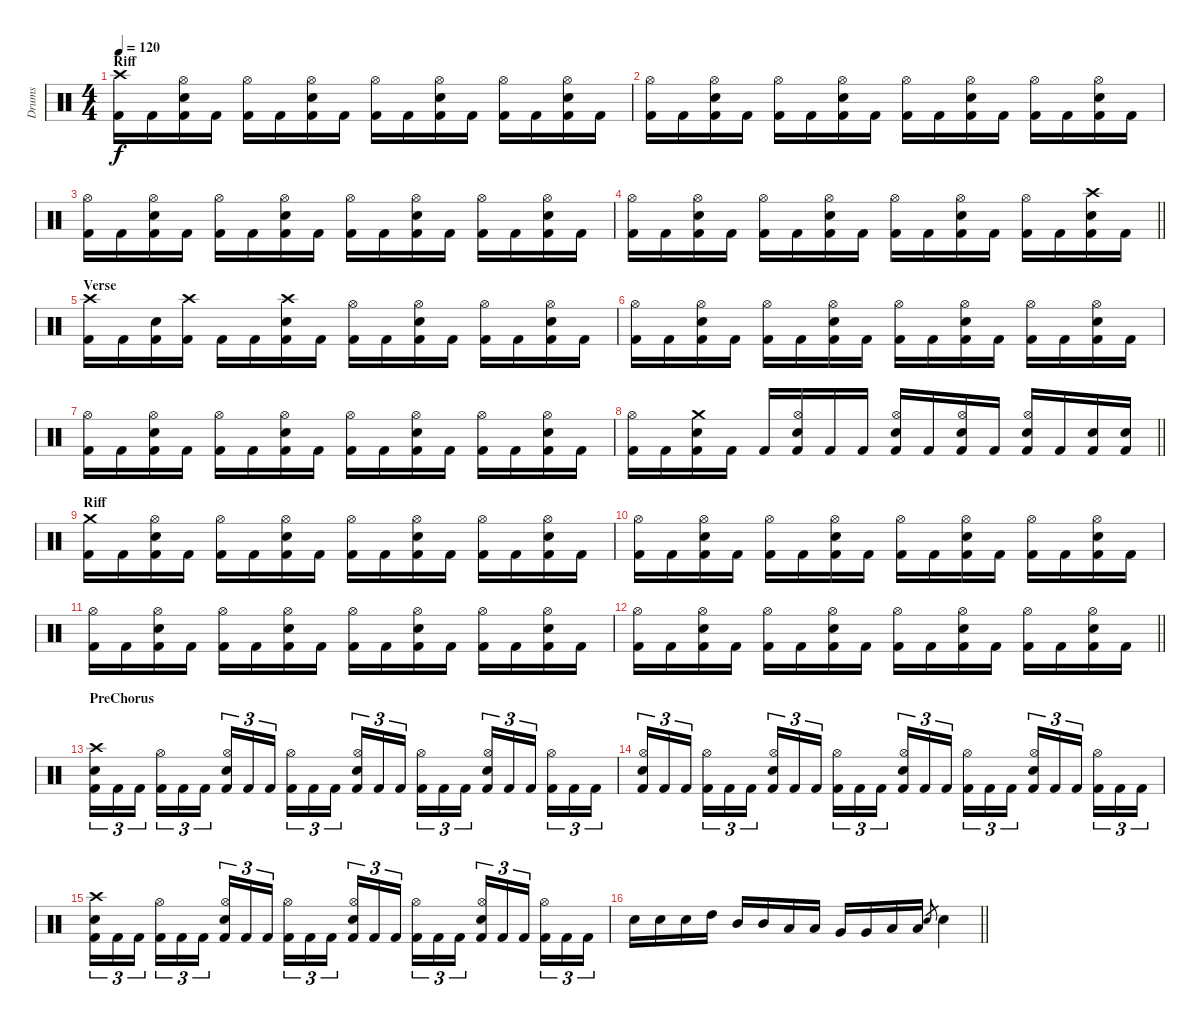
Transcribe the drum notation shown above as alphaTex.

\track ("Drums" "Drums") {instrument percussion}
\staff {score}
\articulation defaults
\ts (4 4)
\section ("" "Riff")
\tempo 120
\clef neutral
\ks c
("Crash high (hit)" "Kick (hit) 2").16{dy f} "Kick (hit) 2".16 ("Hi-Hat (open)" "Snare (hit) 2" "Kick (hit) 2").16 "Kick (hit) 2".16 ("Hi-Hat (open)" "Kick (hit) 2").16 "Kick (hit) 2".16 ("Hi-Hat (open)" "Snare (hit) 2" "Kick (hit) 2").16 "Kick (hit) 2".16 ("Hi-Hat (open)" "Kick (hit) 2").16 "Kick (hit) 2".16 ("Hi-Hat (open)" "Snare (hit) 2" "Kick (hit) 2").16 "Kick (hit) 2".16 ("Hi-Hat (open)" "Kick (hit) 2").16 "Kick (hit) 2".16 ("Hi-Hat (open)" "Snare (hit) 2" "Kick (hit) 2").16 "Kick (hit) 2".16 |
("Hi-Hat (open)" "Kick (hit) 2").16 "Kick (hit) 2".16 ("Hi-Hat (open)" "Snare (hit) 2" "Kick (hit) 2").16 "Kick (hit) 2".16 ("Hi-Hat (open)" "Kick (hit) 2").16 "Kick (hit) 2".16 ("Hi-Hat (open)" "Snare (hit) 2" "Kick (hit) 2").16 "Kick (hit) 2".16 ("Hi-Hat (open)" "Kick (hit) 2").16 "Kick (hit) 2".16 ("Hi-Hat (open)" "Snare (hit) 2" "Kick (hit) 2").16 "Kick (hit) 2".16 ("Hi-Hat (open)" "Kick (hit) 2").16 "Kick (hit) 2".16 ("Hi-Hat (open)" "Snare (hit) 2" "Kick (hit) 2").16 "Kick (hit) 2".16 |
("Hi-Hat (open)" "Kick (hit) 2").16 "Kick (hit) 2".16 ("Hi-Hat (open)" "Snare (hit) 2" "Kick (hit) 2").16 "Kick (hit) 2".16 ("Hi-Hat (open)" "Kick (hit) 2").16 "Kick (hit) 2".16 ("Hi-Hat (open)" "Snare (hit) 2" "Kick (hit) 2").16 "Kick (hit) 2".16 ("Hi-Hat (open)" "Kick (hit) 2").16 "Kick (hit) 2".16 ("Hi-Hat (open)" "Snare (hit) 2" "Kick (hit) 2").16 "Kick (hit) 2".16 ("Hi-Hat (open)" "Kick (hit) 2").16 "Kick (hit) 2".16 ("Hi-Hat (open)" "Snare (hit) 2" "Kick (hit) 2").16 "Kick (hit) 2".16 |
\barLineRight lightlight
("Hi-Hat (open)" "Kick (hit) 2").16 "Kick (hit) 2".16 ("Hi-Hat (open)" "Snare (hit) 2" "Kick (hit) 2").16 "Kick (hit) 2".16 ("Hi-Hat (open)" "Kick (hit) 2").16 "Kick (hit) 2".16 ("Hi-Hat (open)" "Snare (hit) 2" "Kick (hit) 2").16 "Kick (hit) 2".16 ("Hi-Hat (open)" "Kick (hit) 2").16 "Kick (hit) 2".16 ("Hi-Hat (open)" "Snare (hit) 2" "Kick (hit) 2").16 "Kick (hit) 2".16 ("Hi-Hat (open)" "Kick (hit) 2").16 "Kick (hit) 2".16 ("Crash high (hit)" "Snare (hit) 2" "Kick (hit) 2").16 "Kick (hit) 2".16 |
\section ("" "Verse")
("Crash high (hit)" "Kick (hit) 2").16 "Kick (hit) 2".16 ("Snare (hit) 2" "Kick (hit) 2").16 ("Crash high (hit)" "Kick (hit) 2").16 "Kick (hit) 2".16 "Kick (hit) 2".16 ("Crash high (hit)" "Snare (hit) 2" "Kick (hit) 2").16 "Kick (hit) 2".16 ("Hi-Hat (open)" "Kick (hit) 2").16 "Kick (hit) 2".16 ("Hi-Hat (open)" "Snare (hit) 2" "Kick (hit) 2").16 "Kick (hit) 2".16 ("Hi-Hat (open)" "Kick (hit) 2").16 "Kick (hit) 2".16 ("Hi-Hat (open)" "Snare (hit) 2" "Kick (hit) 2").16 "Kick (hit) 2".16 |
("Hi-Hat (open)" "Kick (hit) 2").16 "Kick (hit) 2".16 ("Hi-Hat (open)" "Snare (hit) 2" "Kick (hit) 2").16 "Kick (hit) 2".16 ("Hi-Hat (open)" "Kick (hit) 2").16 "Kick (hit) 2".16 ("Hi-Hat (open)" "Snare (hit) 2" "Kick (hit) 2").16 "Kick (hit) 2".16 ("Hi-Hat (open)" "Kick (hit) 2").16 "Kick (hit) 2".16 ("Hi-Hat (open)" "Snare (hit) 2" "Kick (hit) 2").16 "Kick (hit) 2".16 ("Hi-Hat (open)" "Kick (hit) 2").16 "Kick (hit) 2".16 ("Hi-Hat (open)" "Snare (hit) 2" "Kick (hit) 2").16 "Kick (hit) 2".16 |
("Hi-Hat (open)" "Kick (hit) 2").16 "Kick (hit) 2".16 ("Hi-Hat (open)" "Snare (hit) 2" "Kick (hit) 2").16 "Kick (hit) 2".16 ("Hi-Hat (open)" "Kick (hit) 2").16 "Kick (hit) 2".16 ("Hi-Hat (open)" "Snare (hit) 2" "Kick (hit) 2").16 "Kick (hit) 2".16 ("Hi-Hat (open)" "Kick (hit) 2").16 "Kick (hit) 2".16 ("Hi-Hat (open)" "Snare (hit) 2" "Kick (hit) 2").16 "Kick (hit) 2".16 ("Hi-Hat (open)" "Kick (hit) 2").16 "Kick (hit) 2".16 ("Hi-Hat (open)" "Snare (hit) 2" "Kick (hit) 2").16 "Kick (hit) 2".16 |
\barLineRight lightlight
("Hi-Hat (open)" "Kick (hit) 2").16 "Kick (hit) 2".16 ("Crash medium (hit)" "Snare (hit) 2" "Kick (hit) 2").16 "Kick (hit) 2".16 "Kick (hit) 2".16 ("Hi-Hat (open)" "Snare (hit) 2" "Kick (hit) 2").16 "Kick (hit) 2".16 "Kick (hit) 2".16 ("Hi-Hat (open)" "Snare (hit) 2" "Kick (hit) 2").16 "Kick (hit) 2".16 ("Hi-Hat (open)" "Snare (hit) 2" "Kick (hit) 2").16 "Kick (hit) 2".16 ("Hi-Hat (open)" "Snare (hit) 2" "Kick (hit) 2").16 "Kick (hit) 2".16 ("Snare (hit) 2" "Kick (hit) 2").16 ("Snare (hit) 2" "Kick (hit) 2").16 |
\section ("" "Riff")
("Crash medium (hit)" "Kick (hit) 2").16 "Kick (hit) 2".16 ("Hi-Hat (open)" "Snare (hit) 2" "Kick (hit) 2").16 "Kick (hit) 2".16 ("Hi-Hat (open)" "Kick (hit) 2").16 "Kick (hit) 2".16 ("Hi-Hat (open)" "Snare (hit) 2" "Kick (hit) 2").16 "Kick (hit) 2".16 ("Hi-Hat (open)" "Kick (hit) 2").16 "Kick (hit) 2".16 ("Hi-Hat (open)" "Snare (hit) 2" "Kick (hit) 2").16 "Kick (hit) 2".16 ("Hi-Hat (open)" "Kick (hit) 2").16 "Kick (hit) 2".16 ("Hi-Hat (open)" "Snare (hit) 2" "Kick (hit) 2").16 "Kick (hit) 2".16 |
("Hi-Hat (open)" "Kick (hit) 2").16 "Kick (hit) 2".16 ("Hi-Hat (open)" "Snare (hit) 2" "Kick (hit) 2").16 "Kick (hit) 2".16 ("Hi-Hat (open)" "Kick (hit) 2").16 "Kick (hit) 2".16 ("Hi-Hat (open)" "Snare (hit) 2" "Kick (hit) 2").16 "Kick (hit) 2".16 ("Hi-Hat (open)" "Kick (hit) 2").16 "Kick (hit) 2".16 ("Hi-Hat (open)" "Snare (hit) 2" "Kick (hit) 2").16 "Kick (hit) 2".16 ("Hi-Hat (open)" "Kick (hit) 2").16 "Kick (hit) 2".16 ("Hi-Hat (open)" "Snare (hit) 2" "Kick (hit) 2").16 "Kick (hit) 2".16 |
("Hi-Hat (open)" "Kick (hit) 2").16 "Kick (hit) 2".16 ("Hi-Hat (open)" "Snare (hit) 2" "Kick (hit) 2").16 "Kick (hit) 2".16 ("Hi-Hat (open)" "Kick (hit) 2").16 "Kick (hit) 2".16 ("Hi-Hat (open)" "Snare (hit) 2" "Kick (hit) 2").16 "Kick (hit) 2".16 ("Hi-Hat (open)" "Kick (hit) 2").16 "Kick (hit) 2".16 ("Hi-Hat (open)" "Snare (hit) 2" "Kick (hit) 2").16 "Kick (hit) 2".16 ("Hi-Hat (open)" "Kick (hit) 2").16 "Kick (hit) 2".16 ("Hi-Hat (open)" "Snare (hit) 2" "Kick (hit) 2").16 "Kick (hit) 2".16 |
\barLineRight lightlight
("Hi-Hat (open)" "Kick (hit) 2").16 "Kick (hit) 2".16 ("Hi-Hat (open)" "Snare (hit) 2" "Kick (hit) 2").16 "Kick (hit) 2".16 ("Hi-Hat (open)" "Kick (hit) 2").16 "Kick (hit) 2".16 ("Hi-Hat (open)" "Snare (hit) 2" "Kick (hit) 2").16 "Kick (hit) 2".16 ("Hi-Hat (open)" "Kick (hit) 2").16 "Kick (hit) 2".16 ("Hi-Hat (open)" "Snare (hit) 2" "Kick (hit) 2").16 "Kick (hit) 2".16 ("Hi-Hat (open)" "Kick (hit) 2").16 "Kick (hit) 2".16 ("Hi-Hat (open)" "Snare (hit) 2" "Kick (hit) 2").16 "Kick (hit) 2".16 |
\section ("" "PreChorus")
("Crash high (hit)" "Snare (hit) 2" "Kick (hit) 2").16{tu (3 2)} "Kick (hit) 2".16{tu (3 2)} "Kick (hit) 2".16{tu (3 2)} ("Hi-Hat (open)" "Kick (hit) 2").16{tu (3 2)} "Kick (hit) 2".16{tu (3 2)} "Kick (hit) 2".16{tu (3 2)} ("Hi-Hat (open)" "Snare (hit) 2" "Kick (hit) 2").16{tu (3 2)} "Kick (hit) 2".16{tu (3 2)} "Kick (hit) 2".16{tu (3 2)} ("Hi-Hat (open)" "Kick (hit) 2").16{tu (3 2)} "Kick (hit) 2".16{tu (3 2)} "Kick (hit) 2".16{tu (3 2)} ("Hi-Hat (open)" "Snare (hit) 2" "Kick (hit) 2").16{tu (3 2)} "Kick (hit) 2".16{tu (3 2)} "Kick (hit) 2".16{tu (3 2)} ("Hi-Hat (open)" "Kick (hit) 2").16{tu (3 2)} "Kick (hit) 2".16{tu (3 2)} "Kick (hit) 2".16{tu (3 2)} ("Hi-Hat (open)" "Snare (hit) 2" "Kick (hit) 2").16{tu (3 2)} "Kick (hit) 2".16{tu (3 2)} "Kick (hit) 2".16{tu (3 2)} ("Hi-Hat (open)" "Kick (hit) 2").16{tu (3 2)} "Kick (hit) 2".16{tu (3 2)} "Kick (hit) 2".16{tu (3 2)} |
("Hi-Hat (open)" "Snare (hit) 2" "Kick (hit) 2").16{tu (3 2)} "Kick (hit) 2".16{tu (3 2)} "Kick (hit) 2".16{tu (3 2)} ("Hi-Hat (open)" "Kick (hit) 2").16{tu (3 2)} "Kick (hit) 2".16{tu (3 2)} "Kick (hit) 2".16{tu (3 2)} ("Hi-Hat (open)" "Snare (hit) 2" "Kick (hit) 2").16{tu (3 2)} "Kick (hit) 2".16{tu (3 2)} "Kick (hit) 2".16{tu (3 2)} ("Hi-Hat (open)" "Kick (hit) 2").16{tu (3 2)} "Kick (hit) 2".16{tu (3 2)} "Kick (hit) 2".16{tu (3 2)} ("Hi-Hat (open)" "Snare (hit) 2" "Kick (hit) 2").16{tu (3 2)} "Kick (hit) 2".16{tu (3 2)} "Kick (hit) 2".16{tu (3 2)} ("Hi-Hat (open)" "Kick (hit) 2").16{tu (3 2)} "Kick (hit) 2".16{tu (3 2)} "Kick (hit) 2".16{tu (3 2)} ("Hi-Hat (open)" "Snare (hit) 2" "Kick (hit) 2").16{tu (3 2)} "Kick (hit) 2".16{tu (3 2)} "Kick (hit) 2".16{tu (3 2)} ("Hi-Hat (open)" "Kick (hit) 2").16{tu (3 2)} "Kick (hit) 2".16{tu (3 2)} "Kick (hit) 2".16{tu (3 2)} |
("Crash high (hit)" "Snare (hit) 2" "Kick (hit) 2").16{tu (3 2)} "Kick (hit) 2".16{tu (3 2)} "Kick (hit) 2".16{tu (3 2)} ("Hi-Hat (open)" "Kick (hit) 2").16{tu (3 2)} "Kick (hit) 2".16{tu (3 2)} "Kick (hit) 2".16{tu (3 2)} ("Hi-Hat (open)" "Snare (hit) 2" "Kick (hit) 2").16{tu (3 2)} "Kick (hit) 2".16{tu (3 2)} "Kick (hit) 2".16{tu (3 2)} ("Hi-Hat (open)" "Kick (hit) 2").16{tu (3 2)} "Kick (hit) 2".16{tu (3 2)} "Kick (hit) 2".16{tu (3 2)} ("Hi-Hat (open)" "Snare (hit) 2" "Kick (hit) 2").16{tu (3 2)} "Kick (hit) 2".16{tu (3 2)} "Kick (hit) 2".16{tu (3 2)} ("Hi-Hat (open)" "Kick (hit) 2").16{tu (3 2)} "Kick (hit) 2".16{tu (3 2)} "Kick (hit) 2".16{tu (3 2)} ("Hi-Hat (open)" "Snare (hit) 2" "Kick (hit) 2").16{tu (3 2)} "Kick (hit) 2".16{tu (3 2)} "Kick (hit) 2".16{tu (3 2)} ("Hi-Hat (open)" "Kick (hit) 2").16{tu (3 2)} "Kick (hit) 2".16{tu (3 2)} "Kick (hit) 2".16{tu (3 2)} |
\barLineRight lightlight "Snare (hit) 2".16 "Snare (hit) 2".16 "Snare (hit) 2".16 "High Tom (hit)".16 "Mid Tom (hit)".16 "Mid Tom (hit)".16 "Low Tom (hit)".16 "Low Tom (hit)".16 "Very Low Tom (hit)".16 "Very Low Tom (hit)".16 "Low Floor Tom (hit)".16 "Low Floor Tom (hit)".16 "Snare (hit) 2".8{gr} "Snare (hit) 2".4
